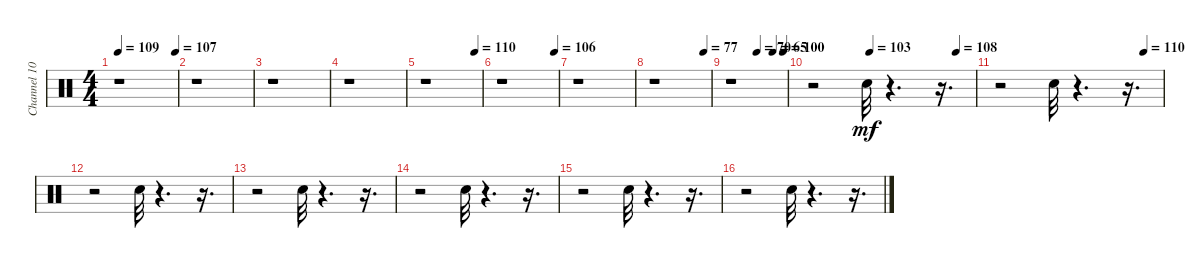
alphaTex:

\track ("Channel 10" "Channel 10") {instrument percussion}
\staff {score}
\articulation defaults
\ts (4 4)
\tempo 109
\tempo (107 0.9791666666666666)
\clef neutral
\ks c
r.1{dy mf} |
r.1 |
r.1 |
r.1 |
\tempo (110 0.8854166666666666)
r.1 |
\tempo (106 0.9479166666666666)
r.1 |
r.1 |
\tempo (77 0.8854166666666666)
r.1 |
\tempo (70 0.4791666666666667)
\tempo (65 0.7604166666666666)
\tempo (100 0.9479166666666666)
r.1 |
\tempo (103 0.3541666666666667)
\tempo (108 0.8854166666666666)
r.2 "Electric Snare (hit)".32 r.4{d} r.16{d} |
\tempo (110 0.8854166666666666)
r.2 "Electric Snare (hit)".32 r.4{d} r.16{d} |
r.2 "Electric Snare (hit)".32 r.4{d} r.16{d} |
r.2 "Electric Snare (hit)".32 r.4{d} r.16{d} |
r.2 "Electric Snare (hit)".32 r.4{d} r.16{d} |
r.2 "Electric Snare (hit)".32 r.4{d} r.16{d} |
r.2 "Electric Snare (hit)".32 r.4{d} r.16{d}
